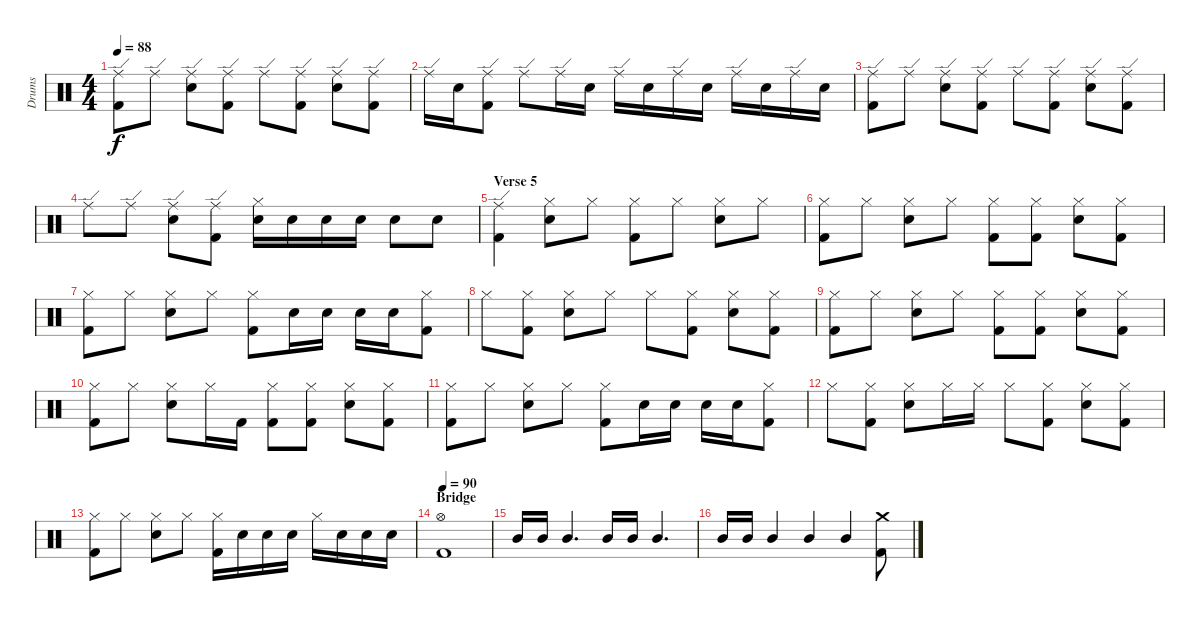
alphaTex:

\defaultSystemsLayout 4
\bracketExtendMode groupsimilarinstruments
\otherSystemsTrackNameOrientation horizontal
\track ("Drumkit (Bonham)" "Drums") {instrument percussion}
\staff {score}
\articulation defaults
\ts (4 4)
\tempo 88
\clef neutral
\scale
0.333333
\ks c
("Ride (edge)" "Kick (hit) 2").8{dy f beam Down} "Ride (edge)".8{beam Down} ("Ride (edge)" "Snare (hit) 2").8{beam Down} ("Ride (edge)" "Kick (hit) 2").8{beam Down} "Ride (edge)".8{beam Down} ("Ride (edge)" "Kick (hit) 2").8{beam Down} ("Ride (edge)" "Snare (hit) 2").8{beam Down} ("Ride (edge)" "Kick (hit) 2").8{beam Down} |
\scale
0.333333 "Ride (edge)".16{beam Down} "Snare (hit) 2".16{beam Down} ("Ride (edge)" "Kick (hit) 2").8{beam Down} "Ride (edge)".8{beam Down} "Ride (edge)".16{beam Down} "Snare (hit) 2".16{beam Down} "Ride (edge)".16{beam Down} "Snare (hit) 2".16{beam Down} "Ride (edge)".16{beam Down} "Snare (hit) 2".16{beam Down} "Ride (edge)".16{beam Down} "Snare (hit) 2".16{beam Down} "Ride (edge)".16{beam Down} "Snare (hit) 2".16{beam Down} |
\scale
0.333333 ("Ride (edge)" "Kick (hit) 2").8{beam Down} "Ride (edge)".8{beam Down} ("Ride (edge)" "Snare (hit) 2").8{beam Down} ("Ride (edge)" "Kick (hit) 2").8{beam Down} "Ride (edge)".8{beam Down} ("Ride (edge)" "Kick (hit) 2").8{beam Down} ("Ride (edge)" "Snare (hit) 2").8{beam Down} ("Ride (edge)" "Kick (hit) 2").8{beam Down} |
\scale
0.333333 "Ride (edge)".8{beam Down} "Ride (edge)".8{beam Down} ("Ride (edge)" "Snare (hit) 2").8{beam Down} ("Ride (edge)" "Kick (hit) 2").8{beam Down} ("Hi-Hat (closed)" "Snare (hit) 2").16{beam Down} "Snare (hit) 2".16{beam Down} "Snare (hit) 2".16{beam Down} "Snare (hit) 2".16{beam Down} "Snare (hit) 2".8{beam Down} "Snare (hit) 2".8{beam Down} |
\section ("" "Verse 5")
\scale
0.333333 ("Ride (edge)" "Kick (hit) 2").4{beam Down} ("Hi-Hat (closed)" "Snare (hit) 2").8{beam Down} "Hi-Hat (closed)".8{beam Down} ("Hi-Hat (closed)" "Kick (hit) 2").8{beam Down} "Hi-Hat (closed)".8{beam Down} ("Hi-Hat (closed)" "Snare (hit) 2").8{beam Down} "Hi-Hat (closed)".8{beam Down} |
\scale
0.333333 ("Hi-Hat (closed)" "Kick (hit) 2").8{beam Down} "Hi-Hat (closed)".8{beam Down} ("Hi-Hat (closed)" "Snare (hit) 2").8{beam Down} "Hi-Hat (closed)".8{beam Down} ("Hi-Hat (closed)" "Kick (hit) 2").8{beam Down} ("Hi-Hat (closed)" "Kick (hit) 2").8{beam Down} ("Hi-Hat (closed)" "Snare (hit) 2").8{beam Down} ("Hi-Hat (closed)" "Kick (hit) 2").8{beam Down} |
\scale
0.333333 ("Hi-Hat (closed)" "Kick (hit) 2").8{beam Down} "Hi-Hat (closed)".8{beam Down} ("Hi-Hat (closed)" "Snare (hit) 2").8{beam Down} "Hi-Hat (closed)".8{beam Down} ("Hi-Hat (closed)" "Kick (hit) 2").8{beam Down} "Snare (hit) 2".16{beam Down} "Snare (hit) 2".16{beam Down} "Snare (hit) 2".16{beam Down} "Snare (hit) 2".16{beam Down} ("Hi-Hat (closed)" "Kick (hit) 2").8{beam Down} |
\scale
0.333333 "Hi-Hat (closed)".8{beam Down} ("Hi-Hat (closed)" "Kick (hit) 2").8{beam Down} ("Hi-Hat (closed)" "Snare (hit) 2").8{beam Down} "Hi-Hat (closed)".8{beam Down} "Hi-Hat (closed)".8{beam Down} ("Hi-Hat (closed)" "Kick (hit) 2").8{beam Down} ("Hi-Hat (closed)" "Snare (hit) 2").8{beam Down} ("Hi-Hat (closed)" "Kick (hit) 2").8{beam Down} |
\scale
0.333333 ("Hi-Hat (closed)" "Kick (hit) 2").8{beam Down} "Hi-Hat (closed)".8{beam Down} ("Hi-Hat (closed)" "Snare (hit) 2").8{beam Down} "Hi-Hat (closed)".8{beam Down} ("Hi-Hat (closed)" "Kick (hit) 2").8{beam Down} ("Hi-Hat (closed)" "Kick (hit) 2").8{beam Down} ("Hi-Hat (closed)" "Snare (hit) 2").8{beam Down} ("Hi-Hat (closed)" "Kick (hit) 2").8{beam Down} |
\scale
0.333333 ("Hi-Hat (closed)" "Kick (hit) 2").8{beam Down} "Hi-Hat (closed)".8{beam Down} ("Hi-Hat (closed)" "Snare (hit) 2").8{beam Down} "Hi-Hat (closed)".16{beam Down} "Kick (hit) 2".16{beam Down} ("Hi-Hat (closed)" "Kick (hit) 2").8{beam Down} ("Hi-Hat (closed)" "Kick (hit) 2").8{beam Down} ("Hi-Hat (closed)" "Snare (hit) 2").8{beam Down} ("Hi-Hat (closed)" "Kick (hit) 2").8{beam Down} |
\scale
0.333333 ("Hi-Hat (closed)" "Kick (hit) 2").8{beam Down} "Hi-Hat (closed)".8{beam Down} ("Hi-Hat (closed)" "Snare (hit) 2").8{beam Down} "Hi-Hat (closed)".8{beam Down} ("Hi-Hat (closed)" "Kick (hit) 2").8{beam Down} "Snare (hit) 2".16{beam Down} "Snare (hit) 2".16{beam Down} "Snare (hit) 2".16{beam Down} "Snare (hit) 2".16{beam Down} ("Hi-Hat (closed)" "Kick (hit) 2").8{beam Down} |
\scale
0.333333 "Hi-Hat (closed)".8{beam Down} ("Hi-Hat (closed)" "Kick (hit) 2").8{beam Down} ("Hi-Hat (closed)" "Snare (hit) 2").8{beam Down} "Hi-Hat (closed)".16{beam Down} "Hi-Hat (closed)".16{beam Down} "Hi-Hat (closed)".8{beam Down} ("Hi-Hat (closed)" "Kick (hit) 2").8{beam Down} ("Hi-Hat (closed)" "Snare (hit) 2").8{beam Down} ("Hi-Hat (closed)" "Kick (hit) 2").8{beam Down} |
\scale
0.333333 ("Hi-Hat (closed)" "Kick (hit) 2").8{beam Down} "Hi-Hat (closed)".8{beam Down} ("Hi-Hat (closed)" "Snare (hit) 2").8{beam Down} "Hi-Hat (closed)".8{beam Down} ("Hi-Hat (closed)" "Kick (hit) 2").16{beam Down} "Snare (hit) 2".16{beam Down} "Snare (hit) 2".16{beam Down} "Snare (hit) 2".16{beam Down} "Hi-Hat (closed)".16{beam Down} "Snare (hit) 2".16{beam Down} "Snare (hit) 2".16{beam Down} "Snare (hit) 2".16{beam Down} |
\section ("" "Bridge")
\tempo 90
\scale
0.333333 ("Hi-Hat (open)" "Kick (hit) 2").1{beam Down} |
\scale
0.333333 "Mid Tom (hit)".16{beam Up} "Mid Tom (hit)".16{beam Up} "Mid Tom (hit)".4{d beam Up} "Mid Tom (hit)".16{beam Up} "Mid Tom (hit)".16{beam Up} "Mid Tom (hit)".4{d beam Up} |
\scale
0.333333 "Mid Tom (hit)".16{beam Up} "Mid Tom (hit)".16{beam Up} "Mid Tom (hit)".4{beam Up} "Mid Tom (hit)".4{beam Up} "Mid Tom (hit)".4{beam Up} ("Kick (hit) 2" "Crash medium (hit)").8{beam Down}
